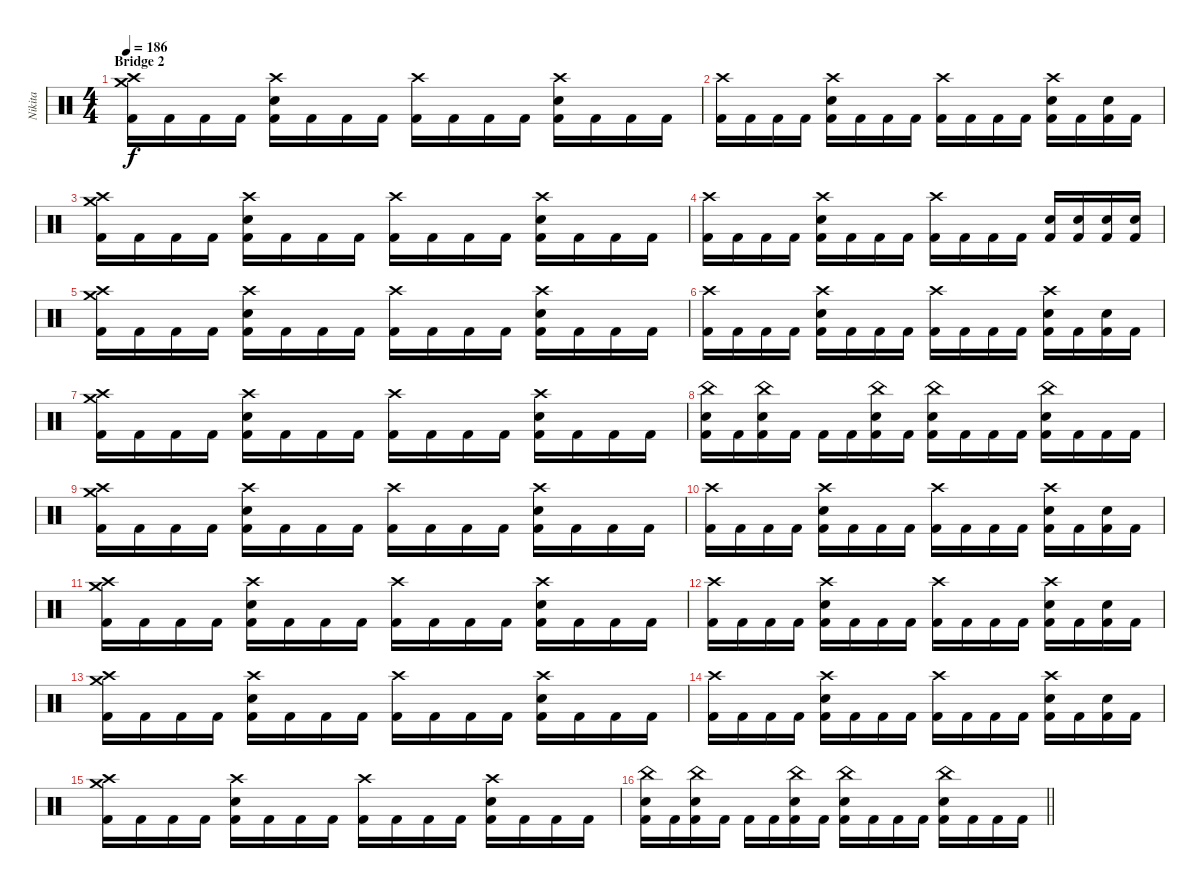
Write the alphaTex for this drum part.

\track ("Nikita" "Nikita") {instrument percussion}
\staff {score}
\articulation defaults
\ts (4 4)
\section ("" "Bridge 2")
\tempo 186
\clef neutral
\ks c
("Crash medium (hit)" "Crash high (hit)" "Kick (hit) 2").16{dy f} "Kick (hit) 2".16 "Kick (hit) 2".16 "Kick (hit) 2".16 ("Crash high (hit)" "Electric Snare (hit)" "Kick (hit) 2").16 "Kick (hit) 2".16 "Kick (hit) 2".16 "Kick (hit) 2".16 ("Crash high (hit)" "Kick (hit) 2").16 "Kick (hit) 2".16 "Kick (hit) 2".16 "Kick (hit) 2".16 ("Crash high (hit)" "Electric Snare (hit)" "Kick (hit) 2").16 "Kick (hit) 2".16 "Kick (hit) 2".16 "Kick (hit) 2".16 |
("Crash high (hit)" "Kick (hit) 2").16 "Kick (hit) 2".16 "Kick (hit) 2".16 "Kick (hit) 2".16 ("Crash high (hit)" "Electric Snare (hit)" "Kick (hit) 2").16 "Kick (hit) 2".16 "Kick (hit) 2".16 "Kick (hit) 2".16 ("Crash high (hit)" "Kick (hit) 2").16 "Kick (hit) 2".16 "Kick (hit) 2".16 "Kick (hit) 2".16 ("Crash high (hit)" "Electric Snare (hit)" "Kick (hit) 2").16 "Kick (hit) 2".16 ("Electric Snare (hit)" "Kick (hit) 2").16 "Kick (hit) 2".16 |
("Crash medium (hit)" "Crash high (hit)" "Kick (hit) 2").16 "Kick (hit) 2".16 "Kick (hit) 2".16 "Kick (hit) 2".16 ("Crash high (hit)" "Electric Snare (hit)" "Kick (hit) 2").16 "Kick (hit) 2".16 "Kick (hit) 2".16 "Kick (hit) 2".16 ("Crash high (hit)" "Kick (hit) 2").16 "Kick (hit) 2".16 "Kick (hit) 2".16 "Kick (hit) 2".16 ("Crash high (hit)" "Electric Snare (hit)" "Kick (hit) 2").16 "Kick (hit) 2".16 "Kick (hit) 2".16 "Kick (hit) 2".16 |
("Crash high (hit)" "Kick (hit) 2").16 "Kick (hit) 2".16 "Kick (hit) 2".16 "Kick (hit) 2".16 ("Crash high (hit)" "Electric Snare (hit)" "Kick (hit) 2").16 "Kick (hit) 2".16 "Kick (hit) 2".16 "Kick (hit) 2".16 ("Crash high (hit)" "Kick (hit) 2").16 "Kick (hit) 2".16 "Kick (hit) 2".16 "Kick (hit) 2".16 ("Electric Snare (hit)" "Kick (hit) 2").16 ("Electric Snare (hit)" "Kick (hit) 2").16 ("Electric Snare (hit)" "Kick (hit) 2").16 ("Electric Snare (hit)" "Kick (hit) 2").16 |
("Crash medium (hit)" "Crash high (hit)" "Kick (hit) 2").16 "Kick (hit) 2".16 "Kick (hit) 2".16 "Kick (hit) 2".16 ("Crash high (hit)" "Electric Snare (hit)" "Kick (hit) 2").16 "Kick (hit) 2".16 "Kick (hit) 2".16 "Kick (hit) 2".16 ("Crash high (hit)" "Kick (hit) 2").16 "Kick (hit) 2".16 "Kick (hit) 2".16 "Kick (hit) 2".16 ("Crash high (hit)" "Electric Snare (hit)" "Kick (hit) 2").16 "Kick (hit) 2".16 "Kick (hit) 2".16 "Kick (hit) 2".16 |
("Crash high (hit)" "Kick (hit) 2").16 "Kick (hit) 2".16 "Kick (hit) 2".16 "Kick (hit) 2".16 ("Crash high (hit)" "Electric Snare (hit)" "Kick (hit) 2").16 "Kick (hit) 2".16 "Kick (hit) 2".16 "Kick (hit) 2".16 ("Crash high (hit)" "Kick (hit) 2").16 "Kick (hit) 2".16 "Kick (hit) 2".16 "Kick (hit) 2".16 ("Crash high (hit)" "Electric Snare (hit)" "Kick (hit) 2").16 "Kick (hit) 2".16 ("Electric Snare (hit)" "Kick (hit) 2").16 "Kick (hit) 2".16 |
("Crash medium (hit)" "Crash high (hit)" "Kick (hit) 2").16 "Kick (hit) 2".16 "Kick (hit) 2".16 "Kick (hit) 2".16 ("Crash high (hit)" "Electric Snare (hit)" "Kick (hit) 2").16 "Kick (hit) 2".16 "Kick (hit) 2".16 "Kick (hit) 2".16 ("Crash high (hit)" "Kick (hit) 2").16 "Kick (hit) 2".16 "Kick (hit) 2".16 "Kick (hit) 2".16 ("Crash high (hit)" "Electric Snare (hit)" "Kick (hit) 2").16 "Kick (hit) 2".16 "Kick (hit) 2".16 "Kick (hit) 2".16 |
("China (hit)" "Electric Snare (hit)" "Kick (hit) 2").16 "Kick (hit) 2".16 ("China (hit)" "Electric Snare (hit)" "Kick (hit) 2").16 "Kick (hit) 2".16 "Kick (hit) 2".16 "Kick (hit) 2".16 ("China (hit)" "Electric Snare (hit)" "Kick (hit) 2").16 "Kick (hit) 2".16 ("China (hit)" "Electric Snare (hit)" "Kick (hit) 2").16 "Kick (hit) 2".16 "Kick (hit) 2".16 "Kick (hit) 2".16 ("China (hit)" "Electric Snare (hit)" "Kick (hit) 2").16 "Kick (hit) 2".16 "Kick (hit) 2".16 "Kick (hit) 2".16 |
("Crash medium (hit)" "Crash high (hit)" "Kick (hit) 2").16 "Kick (hit) 2".16 "Kick (hit) 2".16 "Kick (hit) 2".16 ("Crash high (hit)" "Electric Snare (hit)" "Kick (hit) 2").16 "Kick (hit) 2".16 "Kick (hit) 2".16 "Kick (hit) 2".16 ("Crash high (hit)" "Kick (hit) 2").16 "Kick (hit) 2".16 "Kick (hit) 2".16 "Kick (hit) 2".16 ("Crash high (hit)" "Electric Snare (hit)" "Kick (hit) 2").16 "Kick (hit) 2".16 "Kick (hit) 2".16 "Kick (hit) 2".16 |
("Crash high (hit)" "Kick (hit) 2").16 "Kick (hit) 2".16 "Kick (hit) 2".16 "Kick (hit) 2".16 ("Crash high (hit)" "Electric Snare (hit)" "Kick (hit) 2").16 "Kick (hit) 2".16 "Kick (hit) 2".16 "Kick (hit) 2".16 ("Crash high (hit)" "Kick (hit) 2").16 "Kick (hit) 2".16 "Kick (hit) 2".16 "Kick (hit) 2".16 ("Crash high (hit)" "Electric Snare (hit)" "Kick (hit) 2").16 "Kick (hit) 2".16 ("Electric Snare (hit)" "Kick (hit) 2").16 "Kick (hit) 2".16 |
("Crash medium (hit)" "Crash high (hit)" "Kick (hit) 2").16 "Kick (hit) 2".16 "Kick (hit) 2".16 "Kick (hit) 2".16 ("Crash high (hit)" "Electric Snare (hit)" "Kick (hit) 2").16 "Kick (hit) 2".16 "Kick (hit) 2".16 "Kick (hit) 2".16 ("Crash high (hit)" "Kick (hit) 2").16 "Kick (hit) 2".16 "Kick (hit) 2".16 "Kick (hit) 2".16 ("Crash high (hit)" "Electric Snare (hit)" "Kick (hit) 2").16 "Kick (hit) 2".16 "Kick (hit) 2".16 "Kick (hit) 2".16 |
("Crash high (hit)" "Kick (hit) 2").16 "Kick (hit) 2".16 "Kick (hit) 2".16 "Kick (hit) 2".16 ("Crash high (hit)" "Electric Snare (hit)" "Kick (hit) 2").16 "Kick (hit) 2".16 "Kick (hit) 2".16 "Kick (hit) 2".16 ("Crash high (hit)" "Kick (hit) 2").16 "Kick (hit) 2".16 "Kick (hit) 2".16 "Kick (hit) 2".16 ("Crash high (hit)" "Electric Snare (hit)" "Kick (hit) 2").16 "Kick (hit) 2".16 ("Electric Snare (hit)" "Kick (hit) 2").16 "Kick (hit) 2".16 |
("Crash medium (hit)" "Crash high (hit)" "Kick (hit) 2").16 "Kick (hit) 2".16 "Kick (hit) 2".16 "Kick (hit) 2".16 ("Crash high (hit)" "Electric Snare (hit)" "Kick (hit) 2").16 "Kick (hit) 2".16 "Kick (hit) 2".16 "Kick (hit) 2".16 ("Crash high (hit)" "Kick (hit) 2").16 "Kick (hit) 2".16 "Kick (hit) 2".16 "Kick (hit) 2".16 ("Crash high (hit)" "Electric Snare (hit)" "Kick (hit) 2").16 "Kick (hit) 2".16 "Kick (hit) 2".16 "Kick (hit) 2".16 |
("Crash high (hit)" "Kick (hit) 2").16 "Kick (hit) 2".16 "Kick (hit) 2".16 "Kick (hit) 2".16 ("Crash high (hit)" "Electric Snare (hit)" "Kick (hit) 2").16 "Kick (hit) 2".16 "Kick (hit) 2".16 "Kick (hit) 2".16 ("Crash high (hit)" "Kick (hit) 2").16 "Kick (hit) 2".16 "Kick (hit) 2".16 "Kick (hit) 2".16 ("Crash high (hit)" "Electric Snare (hit)" "Kick (hit) 2").16 "Kick (hit) 2".16 ("Electric Snare (hit)" "Kick (hit) 2").16 "Kick (hit) 2".16 |
("Crash medium (hit)" "Crash high (hit)" "Kick (hit) 2").16 "Kick (hit) 2".16 "Kick (hit) 2".16 "Kick (hit) 2".16 ("Crash high (hit)" "Electric Snare (hit)" "Kick (hit) 2").16 "Kick (hit) 2".16 "Kick (hit) 2".16 "Kick (hit) 2".16 ("Crash high (hit)" "Kick (hit) 2").16 "Kick (hit) 2".16 "Kick (hit) 2".16 "Kick (hit) 2".16 ("Crash high (hit)" "Electric Snare (hit)" "Kick (hit) 2").16 "Kick (hit) 2".16 "Kick (hit) 2".16 "Kick (hit) 2".16 |
\barLineRight lightlight
("China (hit)" "Electric Snare (hit)" "Kick (hit) 2").16 "Kick (hit) 2".16 ("China (hit)" "Electric Snare (hit)" "Kick (hit) 2").16 "Kick (hit) 2".16 "Kick (hit) 2".16 "Kick (hit) 2".16 ("China (hit)" "Electric Snare (hit)" "Kick (hit) 2").16 "Kick (hit) 2".16 ("China (hit)" "Electric Snare (hit)" "Kick (hit) 2").16 "Kick (hit) 2".16 "Kick (hit) 2".16 "Kick (hit) 2".16 ("China (hit)" "Electric Snare (hit)" "Kick (hit) 2").16 "Kick (hit) 2".16 "Kick (hit) 2".16 "Kick (hit) 2".16
